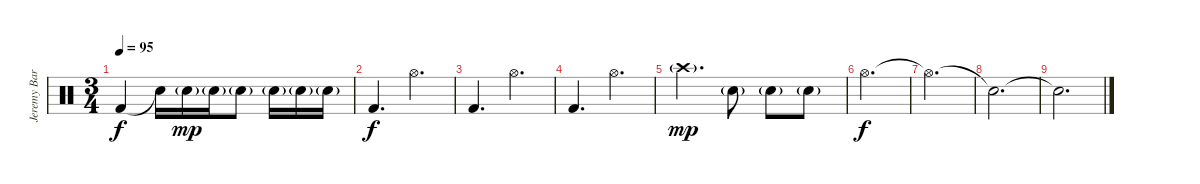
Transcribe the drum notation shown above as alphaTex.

\track ("Jeremy Barnes - Drums" "Jeremy Bar") {instrument percussion}
\staff {score}
\articulation defaults
\ts (3 4)
\tempo 95
\clef neutral
\ks c "Kick (hit) 2".4{dy f} "Snare (hit)"{t}.16 "Electric Snare (hit)"{g}.16{dy mp} "Electric Snare (hit)"{g}.16 "Electric Snare (hit)"{g}.8 "Electric Snare (hit)"{g}.16 "Electric Snare (hit)"{g}.16 "Electric Snare (hit)"{g}.16
|
"Kick (hit) 2".4{d dy f} "Hi-Hat (open)".4{d} |
"Kick (hit) 2".4{d} "Hi-Hat (open)".4{d} |
"Kick (hit) 2".4{d} "Hi-Hat (open)".4{d} |
"Crash high (hit)"{g}.4{d dy mp} "Electric Snare (hit)"{g}.8 "Electric Snare (hit)"{g}.8 "Electric Snare (hit)"{g}.8 |
"Hi-Hat (open)".2{d dy f} |
"Hi-Hat (open)"{t}.2{d} |
"Snare (hit)"{t}.2{d} |
"Snare (hit)"{t}.2{d}
